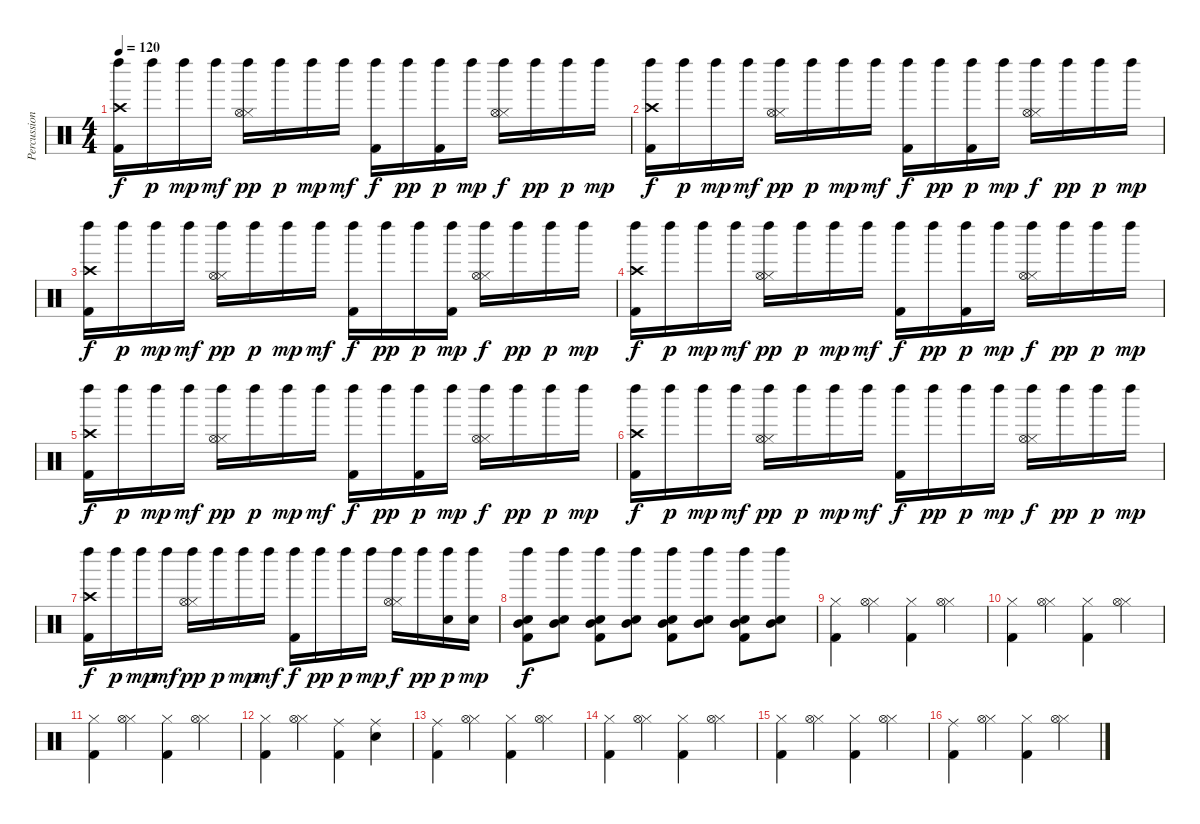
\track ("Percussion" "Percussion") {instrument percussion}
\staff {score}
\articulation defaults
\ts (4 4)
\tempo 120
\clef neutral
\ks c
("Kick (hit) 2" "Crash high (hit)" "Left Maraca (hit)").16{dy f} "Left Maraca (hit)".16{dy p} "Left Maraca (hit)".16{dy mp} "Left Maraca (hit)".16{dy mf} ("Hi-Hat (closed)" "Hi-Hat (open)" "Left Maraca (hit)").16{dy pp} "Left Maraca (hit)".16{dy p} "Left Maraca (hit)".16{dy mp} "Left Maraca (hit)".16{dy mf} ("Kick (hit) 2" "Left Maraca (hit)").16{dy f} "Left Maraca (hit)".16{dy pp} ("Kick (hit) 2" "Left Maraca (hit)").16{dy p} "Left Maraca (hit)".16{dy mp} ("Hi-Hat (closed)" "Hi-Hat (open)" "Left Maraca (hit)").16{dy f} "Left Maraca (hit)".16{dy pp} "Left Maraca (hit)".16{dy p} "Left Maraca (hit)".16{dy mp} |
("Kick (hit) 2" "Crash high (hit)" "Left Maraca (hit)").16{dy f} "Left Maraca (hit)".16{dy p} "Left Maraca (hit)".16{dy mp} "Left Maraca (hit)".16{dy mf} ("Hi-Hat (closed)" "Hi-Hat (open)" "Left Maraca (hit)").16{dy pp} "Left Maraca (hit)".16{dy p} "Left Maraca (hit)".16{dy mp} "Left Maraca (hit)".16{dy mf} ("Kick (hit) 2" "Left Maraca (hit)").16{dy f} "Left Maraca (hit)".16{dy pp} ("Kick (hit) 2" "Left Maraca (hit)").16{dy p} "Left Maraca (hit)".16{dy mp} ("Hi-Hat (closed)" "Hi-Hat (open)" "Left Maraca (hit)").16{dy f} "Left Maraca (hit)".16{dy pp} "Left Maraca (hit)".16{dy p} "Left Maraca (hit)".16{dy mp} |
("Kick (hit) 2" "Crash high (hit)" "Left Maraca (hit)").16{dy f} "Left Maraca (hit)".16{dy p} "Left Maraca (hit)".16{dy mp} "Left Maraca (hit)".16{dy mf} ("Hi-Hat (closed)" "Hi-Hat (open)" "Left Maraca (hit)").16{dy pp} "Left Maraca (hit)".16{dy p} "Left Maraca (hit)".16{dy mp} "Left Maraca (hit)".16{dy mf} ("Kick (hit) 2" "Left Maraca (hit)").16{dy f} "Left Maraca (hit)".16{dy pp} "Left Maraca (hit)".16{dy p} ("Kick (hit) 2" "Left Maraca (hit)").16{dy mp} ("Hi-Hat (closed)" "Hi-Hat (open)" "Left Maraca (hit)").16{dy f} "Left Maraca (hit)".16{dy pp} "Left Maraca (hit)".16{dy p} "Left Maraca (hit)".16{dy mp} |
("Kick (hit) 2" "Crash high (hit)" "Left Maraca (hit)").16{dy f} "Left Maraca (hit)".16{dy p} "Left Maraca (hit)".16{dy mp} "Left Maraca (hit)".16{dy mf} ("Hi-Hat (closed)" "Hi-Hat (open)" "Left Maraca (hit)").16{dy pp} "Left Maraca (hit)".16{dy p} "Left Maraca (hit)".16{dy mp} "Left Maraca (hit)".16{dy mf} ("Kick (hit) 2" "Left Maraca (hit)").16{dy f} "Left Maraca (hit)".16{dy pp} ("Kick (hit) 2" "Left Maraca (hit)").16{dy p} "Left Maraca (hit)".16{dy mp} ("Hi-Hat (closed)" "Hi-Hat (open)" "Left Maraca (hit)").16{dy f} "Left Maraca (hit)".16{dy pp} "Left Maraca (hit)".16{dy p} "Left Maraca (hit)".16{dy mp} |
("Kick (hit) 2" "Crash high (hit)" "Left Maraca (hit)").16{dy f} "Left Maraca (hit)".16{dy p} "Left Maraca (hit)".16{dy mp} "Left Maraca (hit)".16{dy mf} ("Hi-Hat (closed)" "Hi-Hat (open)" "Left Maraca (hit)").16{dy pp} "Left Maraca (hit)".16{dy p} "Left Maraca (hit)".16{dy mp} "Left Maraca (hit)".16{dy mf} ("Kick (hit) 2" "Left Maraca (hit)").16{dy f} "Left Maraca (hit)".16{dy pp} ("Kick (hit) 2" "Left Maraca (hit)").16{dy p} "Left Maraca (hit)".16{dy mp} ("Hi-Hat (closed)" "Hi-Hat (open)" "Left Maraca (hit)").16{dy f} "Left Maraca (hit)".16{dy pp} "Left Maraca (hit)".16{dy p} "Left Maraca (hit)".16{dy mp} |
("Kick (hit) 2" "Crash high (hit)" "Left Maraca (hit)").16{dy f} "Left Maraca (hit)".16{dy p} "Left Maraca (hit)".16{dy mp} "Left Maraca (hit)".16{dy mf} ("Hi-Hat (closed)" "Hi-Hat (open)" "Left Maraca (hit)").16{dy pp} "Left Maraca (hit)".16{dy p} "Left Maraca (hit)".16{dy mp} "Left Maraca (hit)".16{dy mf} ("Kick (hit) 2" "Left Maraca (hit)").16{dy f} "Left Maraca (hit)".16{dy pp} "Left Maraca (hit)".16{dy p} "Left Maraca (hit)".16{dy mp} ("Hi-Hat (closed)" "Hi-Hat (open)" "Left Maraca (hit)").16{dy f} "Left Maraca (hit)".16{dy pp} "Left Maraca (hit)".16{dy p} "Left Maraca (hit)".16{dy mp} |
("Kick (hit) 2" "Crash high (hit)" "Left Maraca (hit)").16{dy f} "Left Maraca (hit)".16{dy p} "Left Maraca (hit)".16{dy mp} "Left Maraca (hit)".16{dy mf} ("Hi-Hat (closed)" "Hi-Hat (open)" "Left Maraca (hit)").16{dy pp} "Left Maraca (hit)".16{dy p} "Left Maraca (hit)".16{dy mp} "Left Maraca (hit)".16{dy mf} ("Kick (hit) 2" "Left Maraca (hit)").16{dy f} "Left Maraca (hit)".16{dy pp} "Left Maraca (hit)".16{dy p} "Left Maraca (hit)".16{dy mp} ("Hi-Hat (closed)" "Hi-Hat (open)" "Left Maraca (hit)").16{dy f} "Left Maraca (hit)".16{dy pp} ("Snare (hit) 2" "Left Maraca (hit)").16{dy p} ("Snare (hit) 2" "Left Maraca (hit)").16{dy mp} |
("Kick (hit) 2" "Snare (hit) 2" "Mid Tom (hit)" "Left Maraca (hit)").8{dy f} ("Snare (hit) 2" "Mid Tom (hit)" "Left Maraca (hit)").8 ("Kick (hit) 2" "Snare (hit) 2" "Mid Tom (hit)" "Left Maraca (hit)").8 ("Snare (hit) 2" "Mid Tom (hit)" "Left Maraca (hit)").8 ("Kick (hit) 2" "Snare (hit) 2" "Mid Tom (hit)" "Left Maraca (hit)").8 ("Snare (hit) 2" "Mid Tom (hit)" "Left Maraca (hit)").8 ("Kick (hit) 2" "Snare (hit) 2" "Mid Tom (hit)" "Left Maraca (hit)").8 ("Snare (hit) 2" "Mid Tom (hit)" "Left Maraca (hit)").8 |
("Kick (hit) 2" "Hi-Hat (closed)").4 ("Hi-Hat (closed)" "Hi-Hat (open)").4 ("Kick (hit) 2" "Hi-Hat (closed)").4 ("Hi-Hat (closed)" "Hi-Hat (open)").4 |
("Kick (hit) 2" "Hi-Hat (closed)").4 ("Hi-Hat (closed)" "Hi-Hat (open)").4 ("Kick (hit) 2" "Hi-Hat (closed)").4 ("Hi-Hat (closed)" "Hi-Hat (open)").4 |
("Kick (hit) 2" "Hi-Hat (closed)").4 ("Hi-Hat (closed)" "Hi-Hat (open)").4 ("Kick (hit) 2" "Hi-Hat (closed)").4 ("Hi-Hat (closed)" "Hi-Hat (open)").4 |
("Kick (hit) 2" "Hi-Hat (closed)").4 ("Hi-Hat (closed)" "Hi-Hat (open)").4 ("Kick (hit) 2" "Ride (middle)").4 ("Snare (hit) 2" "Ride (middle)").4 |
("Kick (hit) 2" "Ride (middle)").4 ("Hi-Hat (closed)" "Hi-Hat (open)").4 ("Kick (hit) 2" "Hi-Hat (closed)").4 ("Hi-Hat (closed)" "Hi-Hat (open)").4 |
("Kick (hit) 2" "Hi-Hat (closed)").4 ("Hi-Hat (closed)" "Hi-Hat (open)").4 ("Kick (hit) 2" "Hi-Hat (closed)").4 ("Hi-Hat (closed)" "Hi-Hat (open)").4 |
("Kick (hit) 2" "Hi-Hat (closed)").4 ("Hi-Hat (closed)" "Hi-Hat (open)").4 ("Kick (hit) 2" "Hi-Hat (closed)").4 ("Hi-Hat (closed)" "Hi-Hat (open)").4 |
("Kick (hit) 2" "Ride (middle)").4 ("Hi-Hat (closed)" "Hi-Hat (open)").4 ("Kick (hit) 2" "Hi-Hat (closed)").4 ("Hi-Hat (closed)" "Hi-Hat (open)").4
